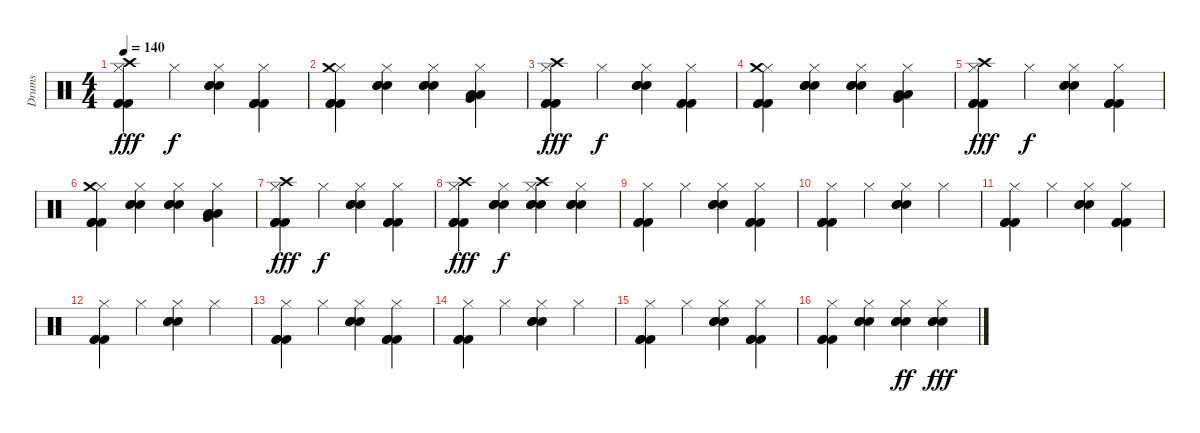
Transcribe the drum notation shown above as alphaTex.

\track ("Drums" "Drums") {instrument percussion}
\staff {score}
\articulation defaults
\ts (4 4)
\tempo 140
\clef neutral
\ks c
("Hi-Hat (closed)" "Kick (hit) 2" "Kick (hit) 2" "Kick (hit) 2" "Crash high (hit)").4{dy fff} "Hi-Hat (closed)".4{dy f} ("Hi-Hat (closed)" "Snare (hit) 2" "Snare (hit) 2" "Snare (hit) 2").4 ("Hi-Hat (closed)" "Kick (hit) 2" "Kick (hit) 2" "Kick (hit) 2").4 |
("Hi-Hat (closed)" "Kick (hit) 2" "Kick (hit) 2" "Kick (hit) 2" "Crash medium (hit)").4 ("Hi-Hat (closed)" "Snare (hit) 2" "Snare (hit) 2" "Snare (hit) 2").4 ("Hi-Hat (closed)" "Snare (hit) 2" "Snare (hit) 2" "Snare (hit) 2").4 ("Hi-Hat (closed)" "Low Tom (hit)" "Very Low Tom (hit)" "Low Floor Tom (hit)").4 |
("Hi-Hat (closed)" "Kick (hit) 2" "Kick (hit) 2" "Kick (hit) 2" "Crash high (hit)").4{dy fff} "Hi-Hat (closed)".4{dy f} ("Hi-Hat (closed)" "Snare (hit) 2" "Snare (hit) 2" "Snare (hit) 2").4 ("Hi-Hat (closed)" "Kick (hit) 2" "Kick (hit) 2" "Kick (hit) 2").4 |
("Hi-Hat (closed)" "Kick (hit) 2" "Kick (hit) 2" "Kick (hit) 2" "Crash medium (hit)").4 ("Hi-Hat (closed)" "Snare (hit) 2" "Snare (hit) 2" "Snare (hit) 2").4 ("Hi-Hat (closed)" "Snare (hit) 2" "Snare (hit) 2" "Snare (hit) 2").4 ("Hi-Hat (closed)" "Low Tom (hit)" "Very Low Tom (hit)" "Low Floor Tom (hit)").4 |
("Hi-Hat (closed)" "Kick (hit) 2" "Kick (hit) 2" "Kick (hit) 2" "Crash high (hit)").4{dy fff} "Hi-Hat (closed)".4{dy f} ("Hi-Hat (closed)" "Snare (hit) 2" "Snare (hit) 2" "Snare (hit) 2").4 ("Hi-Hat (closed)" "Kick (hit) 2" "Kick (hit) 2" "Kick (hit) 2").4 |
("Hi-Hat (closed)" "Kick (hit) 2" "Kick (hit) 2" "Kick (hit) 2" "Crash medium (hit)").4 ("Hi-Hat (closed)" "Snare (hit) 2" "Snare (hit) 2" "Snare (hit) 2").4 ("Hi-Hat (closed)" "Snare (hit) 2" "Snare (hit) 2" "Snare (hit) 2").4 ("Hi-Hat (closed)" "Low Tom (hit)" "Very Low Tom (hit)" "Low Floor Tom (hit)").4 |
("Hi-Hat (closed)" "Kick (hit) 2" "Kick (hit) 2" "Kick (hit) 2" "Crash high (hit)").4{dy fff} "Hi-Hat (closed)".4{dy f} ("Hi-Hat (closed)" "Snare (hit) 2" "Snare (hit) 2" "Snare (hit) 2").4 ("Hi-Hat (closed)" "Kick (hit) 2" "Kick (hit) 2" "Kick (hit) 2").4 |
("Hi-Hat (closed)" "Kick (hit) 2" "Kick (hit) 2" "Kick (hit) 2" "Crash high (hit)").4{dy fff} ("Hi-Hat (closed)" "Snare (hit) 2" "Snare (hit) 2" "Snare (hit) 2").4{dy f} ("Hi-Hat (closed)" "Snare (hit) 2" "Snare (hit) 2" "Snare (hit) 2" "Crash high (hit)").4 ("Hi-Hat (closed)" "Snare (hit) 2" "Snare (hit) 2" "Snare (hit) 2").4 |
("Hi-Hat (closed)" "Kick (hit) 2" "Kick (hit) 2" "Kick (hit) 2").4 "Hi-Hat (closed)".4 ("Hi-Hat (closed)" "Snare (hit) 2" "Snare (hit) 2" "Snare (hit) 2").4 ("Hi-Hat (closed)" "Kick (hit) 2" "Kick (hit) 2" "Kick (hit) 2").4 |
("Hi-Hat (closed)" "Kick (hit) 2" "Kick (hit) 2" "Kick (hit) 2").4 "Hi-Hat (closed)".4 ("Hi-Hat (closed)" "Snare (hit) 2" "Snare (hit) 2" "Snare (hit) 2").4 "Hi-Hat (closed)".4 |
("Hi-Hat (closed)" "Kick (hit) 2" "Kick (hit) 2" "Kick (hit) 2").4 "Hi-Hat (closed)".4 ("Hi-Hat (closed)" "Snare (hit) 2" "Snare (hit) 2" "Snare (hit) 2").4 ("Hi-Hat (closed)" "Kick (hit) 2" "Kick (hit) 2" "Kick (hit) 2").4 |
("Hi-Hat (closed)" "Kick (hit) 2" "Kick (hit) 2" "Kick (hit) 2").4 "Hi-Hat (closed)".4 ("Hi-Hat (closed)" "Snare (hit) 2" "Snare (hit) 2" "Snare (hit) 2").4 "Hi-Hat (closed)".4 |
("Hi-Hat (closed)" "Kick (hit) 2" "Kick (hit) 2" "Kick (hit) 2").4 "Hi-Hat (closed)".4 ("Hi-Hat (closed)" "Snare (hit) 2" "Snare (hit) 2" "Snare (hit) 2").4 ("Hi-Hat (closed)" "Kick (hit) 2" "Kick (hit) 2" "Kick (hit) 2").4 |
("Hi-Hat (closed)" "Kick (hit) 2" "Kick (hit) 2" "Kick (hit) 2").4 "Hi-Hat (closed)".4 ("Hi-Hat (closed)" "Snare (hit) 2" "Snare (hit) 2" "Snare (hit) 2").4 "Hi-Hat (closed)".4 |
("Hi-Hat (closed)" "Kick (hit) 2" "Kick (hit) 2" "Kick (hit) 2").4 "Hi-Hat (closed)".4 ("Hi-Hat (closed)" "Snare (hit) 2" "Snare (hit) 2" "Snare (hit) 2").4 ("Hi-Hat (closed)" "Kick (hit) 2" "Kick (hit) 2" "Kick (hit) 2").4 |
("Hi-Hat (closed)" "Kick (hit) 2" "Kick (hit) 2" "Kick (hit) 2").4 ("Hi-Hat (closed)" "Snare (hit) 2" "Snare (hit) 2" "Snare (hit) 2").4 ("Hi-Hat (closed)" "Snare (hit) 2" "Snare (hit) 2" "Snare (hit) 2").4{dy ff} ("Hi-Hat (closed)" "Snare (hit) 2" "Snare (hit) 2" "Snare (hit) 2").4{dy fff}
